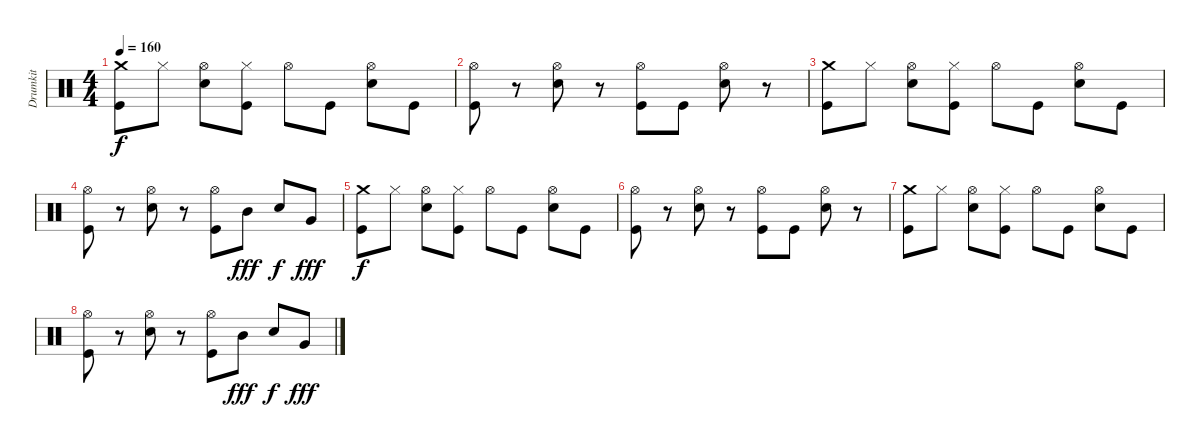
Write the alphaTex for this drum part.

\track ("Drumkit" "Drumkit") {instrument percussion}
\staff {score}
\articulation defaults
\ts (4 4)
\tempo 160
\clef neutral
\ks c
("Kick (hit)" "Crash medium (hit)").8{dy f} "Hi-Hat (closed)".8 ("Snare (hit) 2" "Hi-Hat (open)").8 ("Kick (hit)" "Hi-Hat (closed)").8 "Hi-Hat (open)".8 "Kick (hit)".8 ("Snare (hit) 2" "Hi-Hat (open)").8 "Kick (hit)".8 |
("Kick (hit)" "Hi-Hat (open)").8 r.8 ("Snare (hit) 2" "Hi-Hat (open)").8 r.8 ("Kick (hit)" "Hi-Hat (open)").8 "Kick (hit)".8 ("Snare (hit) 2" "Hi-Hat (open)").8 r.8 |
("Kick (hit)" "Crash medium (hit)").8 "Hi-Hat (closed)".8 ("Snare (hit) 2" "Hi-Hat (open)").8 ("Kick (hit)" "Hi-Hat (closed)").8 "Hi-Hat (open)".8 "Kick (hit)".8 ("Snare (hit) 2" "Hi-Hat (open)").8 "Kick (hit)".8 |
("Kick (hit)" "Hi-Hat (open)").8 r.8 ("Snare (hit) 2" "Hi-Hat (open)").8 r.8 ("Kick (hit)" "Hi-Hat (open)").8 "Mid Tom (hit)".8{dy fff} "Snare (hit) 2".8{dy f} "Very Low Tom (hit)".8{dy fff} |
("Kick (hit)" "Crash medium (hit)").8{dy f} "Hi-Hat (closed)".8 ("Snare (hit) 2" "Hi-Hat (open)").8 ("Kick (hit)" "Hi-Hat (closed)").8 "Hi-Hat (open)".8 "Kick (hit)".8 ("Snare (hit) 2" "Hi-Hat (open)").8 "Kick (hit)".8 |
("Kick (hit)" "Hi-Hat (open)").8 r.8 ("Snare (hit) 2" "Hi-Hat (open)").8 r.8 ("Kick (hit)" "Hi-Hat (open)").8 "Kick (hit)".8 ("Snare (hit) 2" "Hi-Hat (open)").8 r.8 |
("Kick (hit)" "Crash medium (hit)").8 "Hi-Hat (closed)".8 ("Snare (hit) 2" "Hi-Hat (open)").8 ("Kick (hit)" "Hi-Hat (closed)").8 "Hi-Hat (open)".8 "Kick (hit)".8 ("Snare (hit) 2" "Hi-Hat (open)").8 "Kick (hit)".8 |
("Kick (hit)" "Hi-Hat (open)").8 r.8 ("Snare (hit) 2" "Hi-Hat (open)").8 r.8 ("Kick (hit)" "Hi-Hat (open)").8 "Mid Tom (hit)".8{dy fff} "Snare (hit) 2".8{dy f} "Very Low Tom (hit)".8{dy fff}
